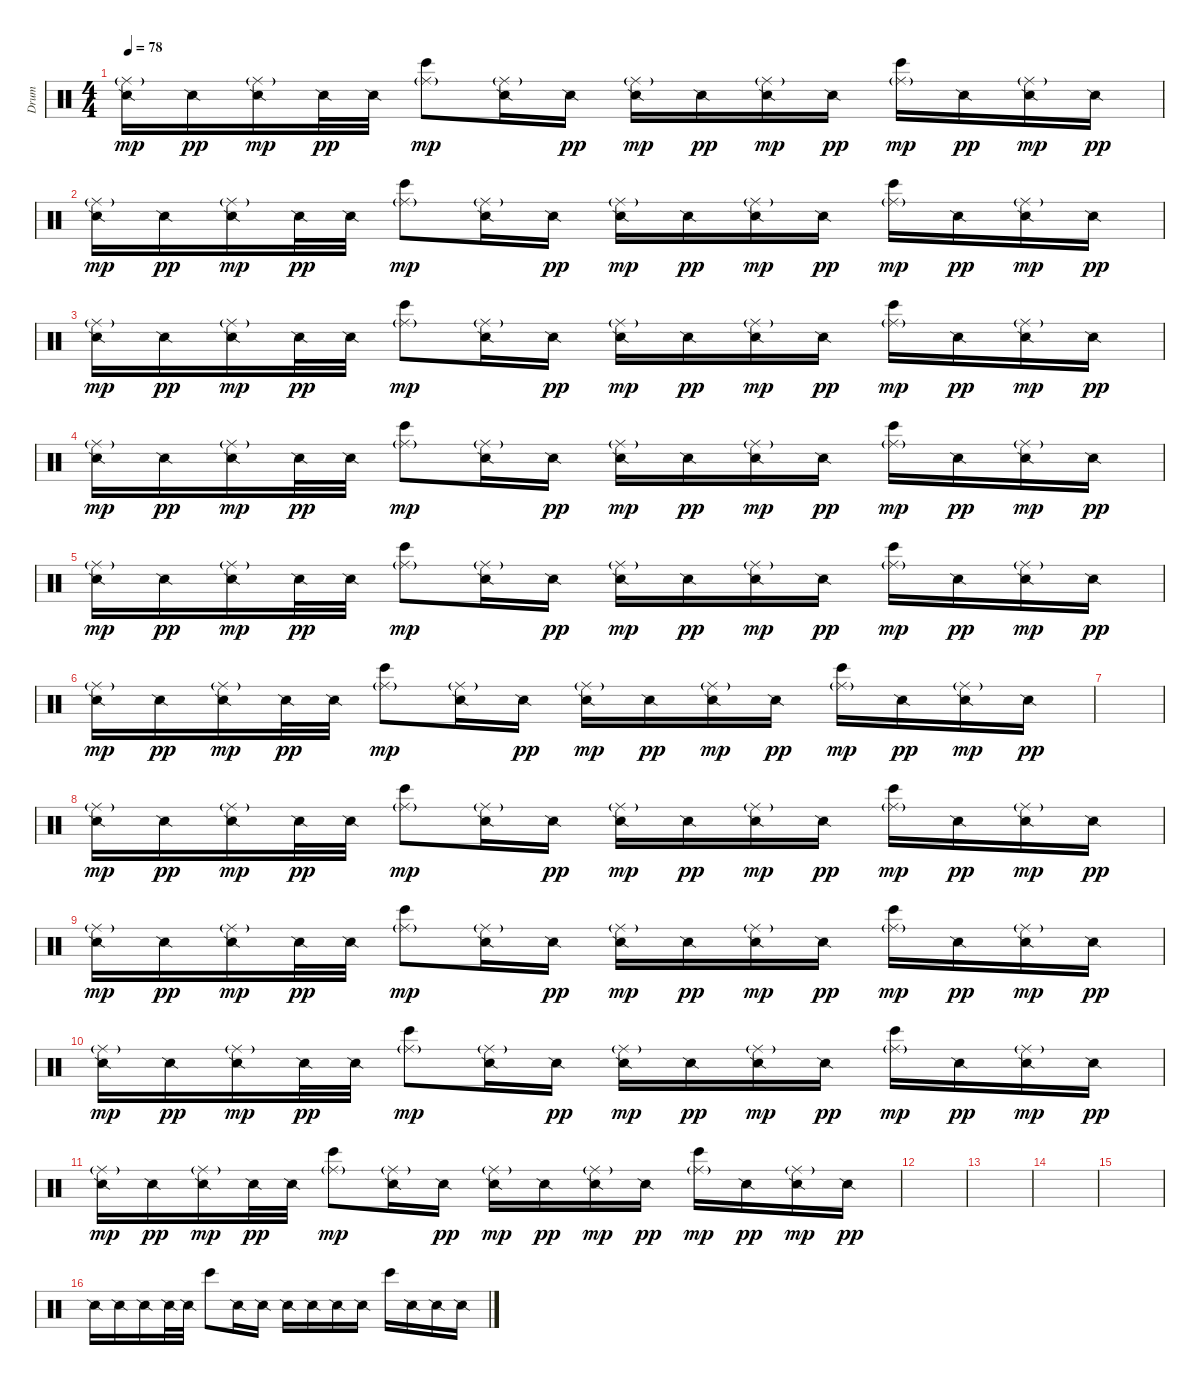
\track ("Drum" "Drum") {instrument percussion}
\staff {score}
\articulation defaults
\ts (4 4)
\tempo 78
\clef neutral
\ks c
("Snare (side stick) 2" "Ride (middle)"{g}).16{dy mp} "Snare (side stick) 2".16{dy pp} ("Snare (side stick) 2" "Ride (middle)"{g}).16{dy mp} "Snare (side stick) 2".32{dy pp} "Snare (side stick) 2".32 ("Bongo High (hit)" "Ride (middle)"{g}).8{dy mp} ("Snare (side stick) 2" "Ride (middle)"{g}).16 "Snare (side stick) 2".16{dy pp} ("Snare (side stick) 2" "Ride (middle)"{g}).16{dy mp} "Snare (side stick) 2".16{dy pp} ("Snare (side stick) 2" "Ride (middle)"{g}).16{dy mp} "Snare (side stick) 2".16{dy pp} ("Bongo High (hit)" "Ride (middle)"{g}).16{dy mp} "Snare (side stick) 2".16{dy pp} ("Snare (side stick) 2" "Ride (middle)"{g}).16{dy mp} "Snare (side stick) 2".16{dy pp} |
("Snare (side stick) 2" "Ride (middle)"{g}).16{dy mp} "Snare (side stick) 2".16{dy pp} ("Snare (side stick) 2" "Ride (middle)"{g}).16{dy mp} "Snare (side stick) 2".32{dy pp} "Snare (side stick) 2".32 ("Bongo High (hit)" "Ride (middle)"{g}).8{dy mp} ("Snare (side stick) 2" "Ride (middle)"{g}).16 "Snare (side stick) 2".16{dy pp} ("Snare (side stick) 2" "Ride (middle)"{g}).16{dy mp} "Snare (side stick) 2".16{dy pp} ("Snare (side stick) 2" "Ride (middle)"{g}).16{dy mp} "Snare (side stick) 2".16{dy pp} ("Bongo High (hit)" "Ride (middle)"{g}).16{dy mp} "Snare (side stick) 2".16{dy pp} ("Snare (side stick) 2" "Ride (middle)"{g}).16{dy mp} "Snare (side stick) 2".16{dy pp} |
("Snare (side stick) 2" "Ride (middle)"{g}).16{dy mp} "Snare (side stick) 2".16{dy pp} ("Snare (side stick) 2" "Ride (middle)"{g}).16{dy mp} "Snare (side stick) 2".32{dy pp} "Snare (side stick) 2".32 ("Bongo High (hit)" "Ride (middle)"{g}).8{dy mp} ("Snare (side stick) 2" "Ride (middle)"{g}).16 "Snare (side stick) 2".16{dy pp} ("Snare (side stick) 2" "Ride (middle)"{g}).16{dy mp} "Snare (side stick) 2".16{dy pp} ("Snare (side stick) 2" "Ride (middle)"{g}).16{dy mp} "Snare (side stick) 2".16{dy pp} ("Bongo High (hit)" "Ride (middle)"{g}).16{dy mp} "Snare (side stick) 2".16{dy pp} ("Snare (side stick) 2" "Ride (middle)"{g}).16{dy mp} "Snare (side stick) 2".16{dy pp} |
("Snare (side stick) 2" "Ride (middle)"{g}).16{dy mp} "Snare (side stick) 2".16{dy pp} ("Snare (side stick) 2" "Ride (middle)"{g}).16{dy mp} "Snare (side stick) 2".32{dy pp} "Snare (side stick) 2".32 ("Bongo High (hit)" "Ride (middle)"{g}).8{dy mp} ("Snare (side stick) 2" "Ride (middle)"{g}).16 "Snare (side stick) 2".16{dy pp} ("Snare (side stick) 2" "Ride (middle)"{g}).16{dy mp} "Snare (side stick) 2".16{dy pp} ("Snare (side stick) 2" "Ride (middle)"{g}).16{dy mp} "Snare (side stick) 2".16{dy pp} ("Bongo High (hit)" "Ride (middle)"{g}).16{dy mp} "Snare (side stick) 2".16{dy pp} ("Snare (side stick) 2" "Ride (middle)"{g}).16{dy mp} "Snare (side stick) 2".16{dy pp} |
("Snare (side stick) 2" "Ride (middle)"{g}).16{dy mp} "Snare (side stick) 2".16{dy pp} ("Snare (side stick) 2" "Ride (middle)"{g}).16{dy mp} "Snare (side stick) 2".32{dy pp} "Snare (side stick) 2".32 ("Bongo High (hit)" "Ride (middle)"{g}).8{dy mp} ("Snare (side stick) 2" "Ride (middle)"{g}).16 "Snare (side stick) 2".16{dy pp} ("Snare (side stick) 2" "Ride (middle)"{g}).16{dy mp} "Snare (side stick) 2".16{dy pp} ("Snare (side stick) 2" "Ride (middle)"{g}).16{dy mp} "Snare (side stick) 2".16{dy pp} ("Bongo High (hit)" "Ride (middle)"{g}).16{dy mp} "Snare (side stick) 2".16{dy pp} ("Snare (side stick) 2" "Ride (middle)"{g}).16{dy mp} "Snare (side stick) 2".16{dy pp} |
("Snare (side stick) 2" "Ride (middle)"{g}).16{dy mp} "Snare (side stick) 2".16{dy pp} ("Snare (side stick) 2" "Ride (middle)"{g}).16{dy mp} "Snare (side stick) 2".32{dy pp} "Snare (side stick) 2".32 ("Bongo High (hit)" "Ride (middle)"{g}).8{dy mp} ("Snare (side stick) 2" "Ride (middle)"{g}).16 "Snare (side stick) 2".16{dy pp} ("Snare (side stick) 2" "Ride (middle)"{g}).16{dy mp} "Snare (side stick) 2".16{dy pp} ("Snare (side stick) 2" "Ride (middle)"{g}).16{dy mp} "Snare (side stick) 2".16{dy pp} ("Bongo High (hit)" "Ride (middle)"{g}).16{dy mp} "Snare (side stick) 2".16{dy pp} ("Snare (side stick) 2" "Ride (middle)"{g}).16{dy mp} "Snare (side stick) 2".16{dy pp} |
|
("Snare (side stick) 2" "Ride (middle)"{g}).16{dy mp} "Snare (side stick) 2".16{dy pp} ("Snare (side stick) 2" "Ride (middle)"{g}).16{dy mp} "Snare (side stick) 2".32{dy pp} "Snare (side stick) 2".32 ("Bongo High (hit)" "Ride (middle)"{g}).8{dy mp} ("Snare (side stick) 2" "Ride (middle)"{g}).16 "Snare (side stick) 2".16{dy pp} ("Snare (side stick) 2" "Ride (middle)"{g}).16{dy mp} "Snare (side stick) 2".16{dy pp} ("Snare (side stick) 2" "Ride (middle)"{g}).16{dy mp} "Snare (side stick) 2".16{dy pp} ("Bongo High (hit)" "Ride (middle)"{g}).16{dy mp} "Snare (side stick) 2".16{dy pp} ("Snare (side stick) 2" "Ride (middle)"{g}).16{dy mp} "Snare (side stick) 2".16{dy pp} |
("Snare (side stick) 2" "Ride (middle)"{g}).16{dy mp} "Snare (side stick) 2".16{dy pp} ("Snare (side stick) 2" "Ride (middle)"{g}).16{dy mp} "Snare (side stick) 2".32{dy pp} "Snare (side stick) 2".32 ("Bongo High (hit)" "Ride (middle)"{g}).8{dy mp} ("Snare (side stick) 2" "Ride (middle)"{g}).16 "Snare (side stick) 2".16{dy pp} ("Snare (side stick) 2" "Ride (middle)"{g}).16{dy mp} "Snare (side stick) 2".16{dy pp} ("Snare (side stick) 2" "Ride (middle)"{g}).16{dy mp} "Snare (side stick) 2".16{dy pp} ("Bongo High (hit)" "Ride (middle)"{g}).16{dy mp} "Snare (side stick) 2".16{dy pp} ("Snare (side stick) 2" "Ride (middle)"{g}).16{dy mp} "Snare (side stick) 2".16{dy pp} |
("Snare (side stick) 2" "Ride (middle)"{g}).16{dy mp} "Snare (side stick) 2".16{dy pp} ("Snare (side stick) 2" "Ride (middle)"{g}).16{dy mp} "Snare (side stick) 2".32{dy pp} "Snare (side stick) 2".32 ("Bongo High (hit)" "Ride (middle)"{g}).8{dy mp} ("Snare (side stick) 2" "Ride (middle)"{g}).16 "Snare (side stick) 2".16{dy pp} ("Snare (side stick) 2" "Ride (middle)"{g}).16{dy mp} "Snare (side stick) 2".16{dy pp} ("Snare (side stick) 2" "Ride (middle)"{g}).16{dy mp} "Snare (side stick) 2".16{dy pp} ("Bongo High (hit)" "Ride (middle)"{g}).16{dy mp} "Snare (side stick) 2".16{dy pp} ("Snare (side stick) 2" "Ride (middle)"{g}).16{dy mp} "Snare (side stick) 2".16{dy pp} |
("Snare (side stick) 2" "Ride (middle)"{g}).16{dy mp} "Snare (side stick) 2".16{dy pp} ("Snare (side stick) 2" "Ride (middle)"{g}).16{dy mp} "Snare (side stick) 2".32{dy pp} "Snare (side stick) 2".32 ("Bongo High (hit)" "Ride (middle)"{g}).8{dy mp} ("Snare (side stick) 2" "Ride (middle)"{g}).16 "Snare (side stick) 2".16{dy pp} ("Snare (side stick) 2" "Ride (middle)"{g}).16{dy mp} "Snare (side stick) 2".16{dy pp} ("Snare (side stick) 2" "Ride (middle)"{g}).16{dy mp} "Snare (side stick) 2".16{dy pp} ("Bongo High (hit)" "Ride (middle)"{g}).16{dy mp} "Snare (side stick) 2".16{dy pp} ("Snare (side stick) 2" "Ride (middle)"{g}).16{dy mp} "Snare (side stick) 2".16{dy pp} |
|
|
|
|
"Snare (side stick) 2".16 "Snare (side stick) 2".16 "Snare (side stick) 2".16 "Snare (side stick) 2".32 "Snare (side stick) 2".32 "Bongo High (hit)".8 "Snare (side stick) 2".16 "Snare (side stick) 2".16 "Snare (side stick) 2".16 "Snare (side stick) 2".16 "Snare (side stick) 2".16 "Snare (side stick) 2".16 "Bongo High (hit)".16 "Snare (side stick) 2".16 "Snare (side stick) 2".16 "Snare (side stick) 2".16
